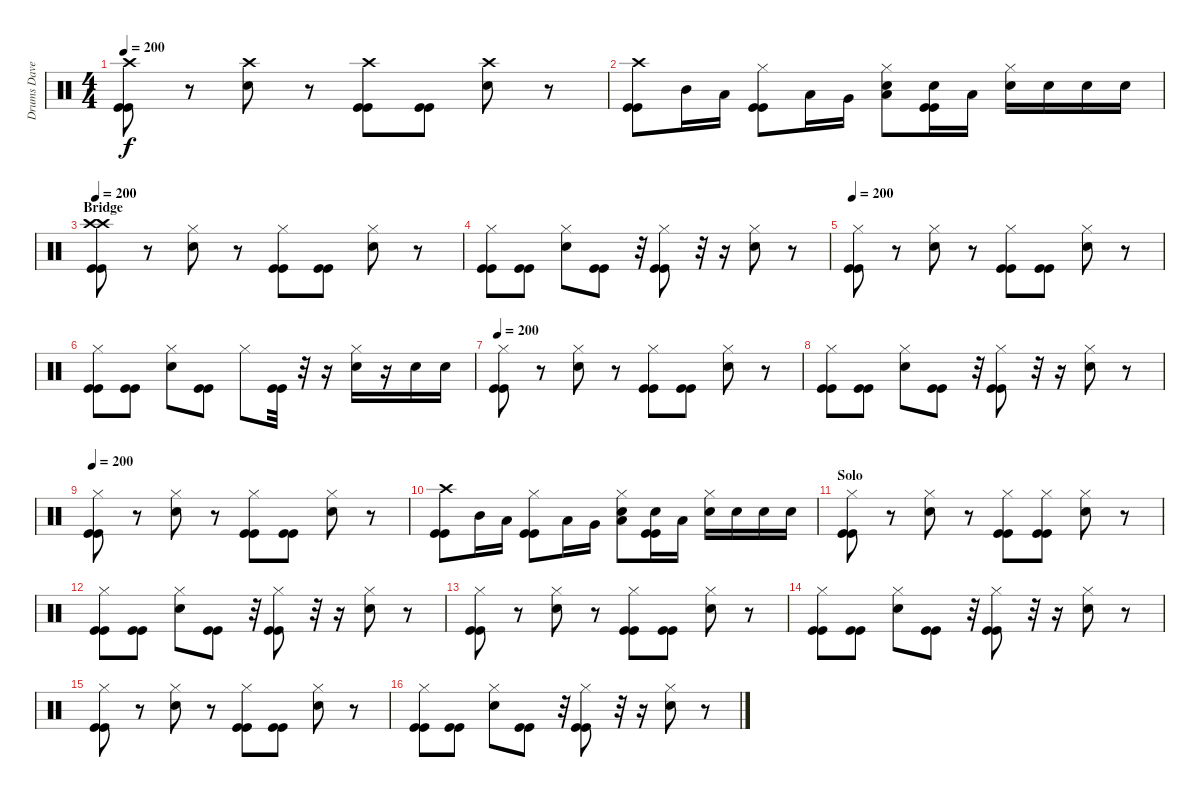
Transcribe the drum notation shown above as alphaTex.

\track ("Drums Dave Grohl" "Drums Dave") {instrument percussion}
\staff {score}
\articulation defaults
\ts (4 4)
\tempo 200
\clef neutral
\ks c
("Crash high (hit)" "Kick (hit)" "Kick (hit)").8{dy f} r.8 ("Crash high (hit)" "Electric Snare (hit)").8 r.8 ("Crash high (hit)" "Kick (hit)" "Kick (hit)").8 ("Kick (hit)" "Kick (hit)").8 ("Crash high (hit)" "Electric Snare (hit)").8 r.8 |
("Crash high (hit)" "Kick (hit)" "Kick (hit)").8 "Mid Tom (hit)".16 "Low Tom (hit)".16 ("Hi-Hat (closed)" "Kick (hit)" "Kick (hit)").8 "Low Tom (hit)".16 "Very Low Tom (hit)".16 ("Hi-Hat (closed)" "Low Tom (hit)" "Electric Snare (hit)").8 ("Electric Snare (hit)" "Kick (hit)" "Kick (hit)").16 "Low Tom (hit)".16 ("Hi-Hat (closed)" "Electric Snare (hit)").16 "Electric Snare (hit)".16 "Electric Snare (hit)".16 "Electric Snare (hit)".16 |
\section ("" "Bridge")
\tempo 200
("Crash high (hit)" "Crash high (hit)" "Kick (hit)" "Kick (hit)").8 r.8 ("Hi-Hat (closed)" "Electric Snare (hit)").8 r.8 ("Hi-Hat (closed)" "Kick (hit)" "Kick (hit)").8 ("Kick (hit)" "Kick (hit)").8 ("Hi-Hat (closed)" "Electric Snare (hit)").8 r.8 |
("Hi-Hat (closed)" "Kick (hit)" "Kick (hit)").8 ("Kick (hit)" "Kick (hit)").8 ("Hi-Hat (closed)" "Electric Snare (hit)").8 ("Kick (hit)" "Kick (hit)").8 r.32 ("Hi-Hat (closed)" "Kick (hit)" "Kick (hit)").8 r.32 r.16 ("Hi-Hat (closed)" "Electric Snare (hit)").8 r.8 |
\tempo 200
("Hi-Hat (closed)" "Kick (hit)" "Kick (hit)").8 r.8 ("Hi-Hat (closed)" "Electric Snare (hit)").8 r.8 ("Hi-Hat (closed)" "Kick (hit)" "Kick (hit)").8 ("Kick (hit)" "Kick (hit)").8 ("Hi-Hat (closed)" "Electric Snare (hit)").8 r.8 |
("Hi-Hat (closed)" "Kick (hit)" "Kick (hit)").8 ("Kick (hit)" "Kick (hit)").8 ("Hi-Hat (closed)" "Electric Snare (hit)").8 ("Kick (hit)" "Kick (hit)").8 "Hi-Hat (closed)".8 ("Kick (hit)" "Kick (hit)").32 r.32 r.16 ("Hi-Hat (closed)" "Electric Snare (hit)").16 r.16 "Electric Snare (hit)".16 "Electric Snare (hit)".16 |
\tempo 200
("Hi-Hat (closed)" "Kick (hit)" "Kick (hit)").8 r.8 ("Hi-Hat (closed)" "Electric Snare (hit)").8 r.8 ("Hi-Hat (closed)" "Kick (hit)" "Kick (hit)").8 ("Kick (hit)" "Kick (hit)").8 ("Hi-Hat (closed)" "Electric Snare (hit)").8 r.8 |
("Hi-Hat (closed)" "Kick (hit)" "Kick (hit)").8 ("Kick (hit)" "Kick (hit)").8 ("Hi-Hat (closed)" "Electric Snare (hit)").8 ("Kick (hit)" "Kick (hit)").8 r.32 ("Hi-Hat (closed)" "Kick (hit)" "Kick (hit)").8 r.32 r.16 ("Hi-Hat (closed)" "Electric Snare (hit)").8 r.8 |
\tempo 200
("Hi-Hat (closed)" "Kick (hit)" "Kick (hit)").8 r.8 ("Hi-Hat (closed)" "Electric Snare (hit)").8 r.8 ("Hi-Hat (closed)" "Kick (hit)" "Kick (hit)").8 ("Kick (hit)" "Kick (hit)").8 ("Hi-Hat (closed)" "Electric Snare (hit)").8 r.8 |
("Crash high (hit)" "Kick (hit)" "Kick (hit)").8 "Mid Tom (hit)".16 "Low Tom (hit)".16 ("Hi-Hat (closed)" "Kick (hit)" "Kick (hit)").8 "Low Tom (hit)".16 "Very Low Tom (hit)".16 ("Hi-Hat (closed)" "Low Tom (hit)" "Electric Snare (hit)").8 ("Electric Snare (hit)" "Kick (hit)" "Kick (hit)").16 "Low Tom (hit)".16 ("Hi-Hat (closed)" "Electric Snare (hit)").16 "Electric Snare (hit)".16 "Electric Snare (hit)".16 "Electric Snare (hit)".16 |
\section ("" "Solo")
("Hi-Hat (closed)" "Kick (hit)" "Kick (hit)").8 r.8 ("Hi-Hat (closed)" "Electric Snare (hit)").8 r.8 ("Hi-Hat (closed)" "Kick (hit)" "Kick (hit)").8 ("Hi-Hat (closed)" "Kick (hit)" "Kick (hit)").8 ("Hi-Hat (closed)" "Electric Snare (hit)").8 r.8 |
("Hi-Hat (closed)" "Kick (hit)" "Kick (hit)").8 ("Kick (hit)" "Kick (hit)").8 ("Hi-Hat (closed)" "Electric Snare (hit)").8 ("Kick (hit)" "Kick (hit)").8 r.32 ("Hi-Hat (closed)" "Kick (hit)" "Kick (hit)").8 r.32 r.16 ("Hi-Hat (closed)" "Electric Snare (hit)").8 r.8 |
("Hi-Hat (closed)" "Kick (hit)" "Kick (hit)").8 r.8 ("Hi-Hat (closed)" "Electric Snare (hit)").8 r.8 ("Hi-Hat (closed)" "Kick (hit)" "Kick (hit)").8 ("Kick (hit)" "Kick (hit)").8 ("Hi-Hat (closed)" "Electric Snare (hit)").8 r.8 |
("Hi-Hat (closed)" "Kick (hit)" "Kick (hit)").8 ("Kick (hit)" "Kick (hit)").8 ("Hi-Hat (closed)" "Electric Snare (hit)").8 ("Kick (hit)" "Kick (hit)").8 r.32 ("Hi-Hat (closed)" "Kick (hit)" "Kick (hit)").8 r.32 r.16 ("Hi-Hat (closed)" "Electric Snare (hit)").8 r.8 |
("Hi-Hat (closed)" "Kick (hit)" "Kick (hit)").8 r.8 ("Hi-Hat (closed)" "Electric Snare (hit)").8 r.8 ("Hi-Hat (closed)" "Kick (hit)" "Kick (hit)").8 ("Kick (hit)" "Kick (hit)").8 ("Hi-Hat (closed)" "Electric Snare (hit)").8 r.8 |
("Hi-Hat (closed)" "Kick (hit)" "Kick (hit)").8 ("Kick (hit)" "Kick (hit)").8 ("Hi-Hat (closed)" "Electric Snare (hit)").8 ("Kick (hit)" "Kick (hit)").8 r.32 ("Hi-Hat (closed)" "Kick (hit)" "Kick (hit)").8 r.32 r.16 ("Hi-Hat (closed)" "Electric Snare (hit)").8 r.8
